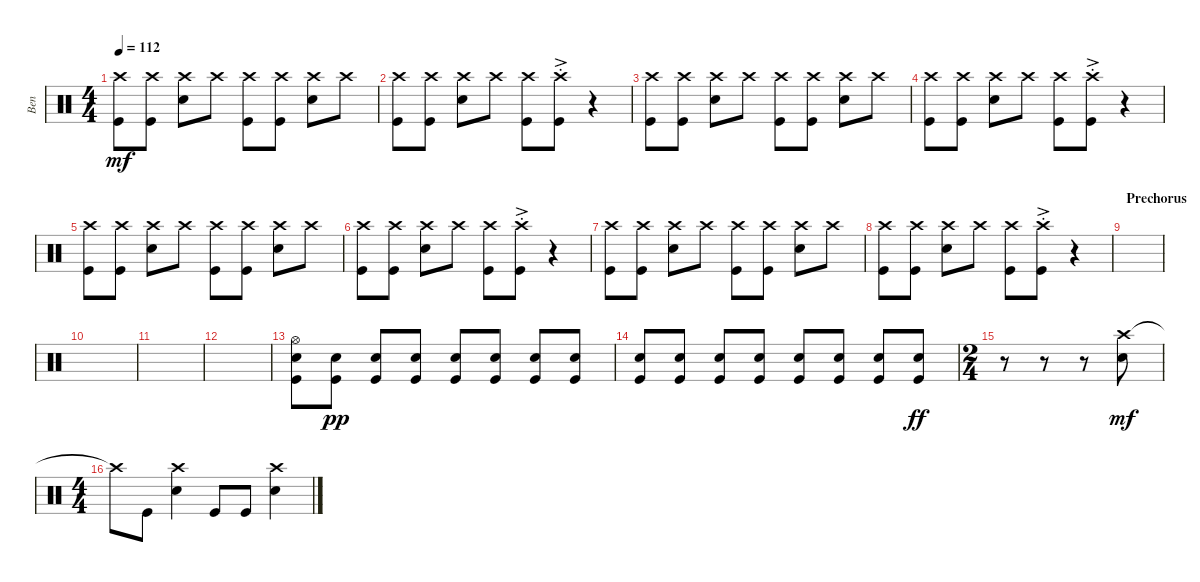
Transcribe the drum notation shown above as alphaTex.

\track ("Ben" "Ben") {instrument percussion}
\staff {score}
\articulation defaults
\ts (4 4)
\tempo 112
\clef neutral
\ks c
("Crash high (hit)" "Kick (hit)").8{dy mf} ("Crash high (hit)" "Kick (hit)").8 ("Crash high (hit)" "Snare (hit) 2").8 "Crash high (hit)".8 ("Crash high (hit)" "Kick (hit)").8 ("Crash high (hit)" "Kick (hit)").8 ("Crash high (hit)" "Snare (hit) 2").8 "Crash high (hit)".8 |
("Crash high (hit)" "Kick (hit)").8 ("Crash high (hit)" "Kick (hit)").8 ("Crash high (hit)" "Snare (hit) 2").8 "Crash high (hit)".8 ("Crash high (hit)" "Kick (hit)").8 ("Crash high (hit)"{ac st} "Kick (hit)"{ac st}).8 r.4 |
("Crash high (hit)" "Kick (hit)").8 ("Crash high (hit)" "Kick (hit)").8 ("Crash high (hit)" "Snare (hit) 2").8 "Crash high (hit)".8 ("Crash high (hit)" "Kick (hit)").8 ("Crash high (hit)" "Kick (hit)").8 ("Crash high (hit)" "Snare (hit) 2").8 "Crash high (hit)".8 |
("Crash high (hit)" "Kick (hit)").8 ("Crash high (hit)" "Kick (hit)").8 ("Crash high (hit)" "Snare (hit) 2").8 "Crash high (hit)".8 ("Crash high (hit)" "Kick (hit)").8 ("Crash high (hit)"{ac st} "Kick (hit)"{ac st}).8 r.4 |
("Crash high (hit)" "Kick (hit)").8 ("Crash high (hit)" "Kick (hit)").8 ("Crash high (hit)" "Snare (hit) 2").8 "Crash high (hit)".8 ("Crash high (hit)" "Kick (hit)").8 ("Crash high (hit)" "Kick (hit)").8 ("Crash high (hit)" "Snare (hit) 2").8 "Crash high (hit)".8 |
("Crash high (hit)" "Kick (hit)").8 ("Crash high (hit)" "Kick (hit)").8 ("Crash high (hit)" "Snare (hit) 2").8 "Crash high (hit)".8 ("Crash high (hit)" "Kick (hit)").8 ("Crash high (hit)"{ac st} "Kick (hit)"{ac st}).8 r.4 |
("Crash high (hit)" "Kick (hit)").8 ("Crash high (hit)" "Kick (hit)").8 ("Crash high (hit)" "Snare (hit) 2").8 "Crash high (hit)".8 ("Crash high (hit)" "Kick (hit)").8 ("Crash high (hit)" "Kick (hit)").8 ("Crash high (hit)" "Snare (hit) 2").8 "Crash high (hit)".8 |
("Crash high (hit)" "Kick (hit)").8 ("Crash high (hit)" "Kick (hit)").8 ("Crash high (hit)" "Snare (hit) 2").8 "Crash high (hit)".8 ("Crash high (hit)" "Kick (hit)").8 ("Crash high (hit)"{ac st} "Kick (hit)"{ac st}).8 r.4 |
\section ("" "Prechorus")
|
|
|
|
("Kick (hit)" "Snare (hit) 2" "Hi-Hat (open)").8 ("Kick (hit)" "Snare (hit) 2").8{dy pp} ("Snare (hit) 2" "Kick (hit)").8 ("Snare (hit) 2" "Kick (hit)").8 ("Snare (hit) 2" "Kick (hit)").8 ("Snare (hit) 2" "Kick (hit)").8 ("Snare (hit) 2" "Kick (hit)").8 ("Snare (hit) 2" "Kick (hit)").8 |
("Snare (hit) 2" "Kick (hit)").8 ("Snare (hit) 2" "Kick (hit)").8 ("Snare (hit) 2" "Kick (hit)").8 ("Snare (hit) 2" "Kick (hit)").8 ("Snare (hit) 2" "Kick (hit)").8 ("Snare (hit) 2" "Kick (hit)").8 ("Snare (hit) 2" "Kick (hit)").8 ("Snare (hit) 2" "Kick (hit)").8{dy ff} |
\ts (2 4)
r.8 r.8 r.8 ("Crash high (hit)" "Snare (hit) 2").8{dy mf} |
\ts (4 4)
"Crash high (hit)"{t}.8 "Kick (hit)".8 ("Snare (hit) 2" "Crash high (hit)").4 "Kick (hit)".8 "Kick (hit)".8 ("Snare (hit) 2" "Crash high (hit)").4
